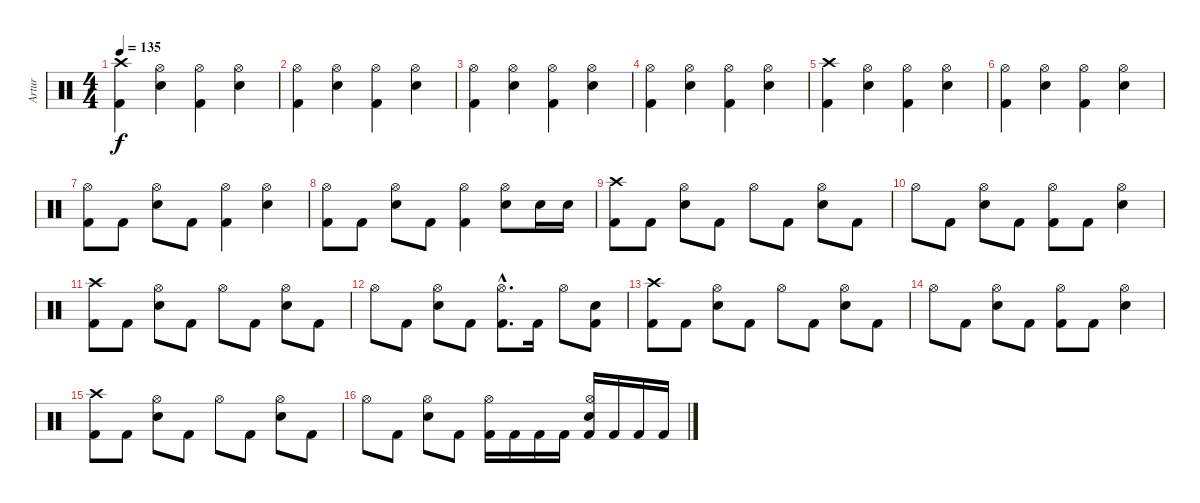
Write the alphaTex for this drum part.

\track ("Artur" "Artur") {instrument percussion}
\staff {score}
\articulation defaults
\ts (4 4)
\tempo 135
\clef neutral
\ks c
("Crash high (hit)" "Kick (hit) 2").4{dy f} ("Hi-Hat (open)" "Electric Snare (hit)").4 ("Hi-Hat (open)" "Kick (hit) 2").4 ("Hi-Hat (open)" "Electric Snare (hit)").4 |
("Hi-Hat (open)" "Kick (hit) 2").4 ("Hi-Hat (open)" "Electric Snare (hit)").4 ("Hi-Hat (open)" "Kick (hit) 2").4 ("Hi-Hat (open)" "Electric Snare (hit)").4 |
("Hi-Hat (open)" "Kick (hit) 2").4 ("Hi-Hat (open)" "Electric Snare (hit)").4 ("Hi-Hat (open)" "Kick (hit) 2").4 ("Hi-Hat (open)" "Electric Snare (hit)").4 |
("Hi-Hat (open)" "Kick (hit) 2").4 ("Hi-Hat (open)" "Electric Snare (hit)").4 ("Hi-Hat (open)" "Kick (hit) 2").4 ("Hi-Hat (open)" "Electric Snare (hit)").4 |
("Crash high (hit)" "Kick (hit) 2").4 ("Hi-Hat (open)" "Electric Snare (hit)").4 ("Hi-Hat (open)" "Kick (hit) 2").4 ("Hi-Hat (open)" "Electric Snare (hit)").4 |
("Hi-Hat (open)" "Kick (hit) 2").4 ("Hi-Hat (open)" "Electric Snare (hit)").4 ("Hi-Hat (open)" "Kick (hit) 2").4 ("Hi-Hat (open)" "Electric Snare (hit)").4 |
("Hi-Hat (open)" "Kick (hit) 2").8 "Kick (hit) 2".8 ("Hi-Hat (open)" "Electric Snare (hit)").8 "Kick (hit) 2".8 ("Hi-Hat (open)" "Kick (hit) 2").4 ("Hi-Hat (open)" "Electric Snare (hit)").4 |
("Hi-Hat (open)" "Kick (hit) 2").8 "Kick (hit) 2".8 ("Hi-Hat (open)" "Electric Snare (hit)").8 "Kick (hit) 2".8 ("Hi-Hat (open)" "Kick (hit) 2").4 ("Hi-Hat (open)" "Electric Snare (hit)").8 "Electric Snare (hit)".16 "Electric Snare (hit)".16 |
("Crash high (hit)" "Kick (hit) 2").8 "Kick (hit) 2".8 ("Hi-Hat (open)" "Electric Snare (hit)").8 "Kick (hit) 2".8 "Hi-Hat (open)".8 "Kick (hit) 2".8 ("Hi-Hat (open)" "Electric Snare (hit)").8 "Kick (hit) 2".8 |
"Hi-Hat (open)".8 "Kick (hit) 2".8 ("Hi-Hat (open)" "Electric Snare (hit)").8 "Kick (hit) 2".8 ("Hi-Hat (open)" "Kick (hit) 2").8 "Kick (hit) 2".8 ("Hi-Hat (open)" "Electric Snare (hit)").4 |
("Crash high (hit)" "Kick (hit) 2").8 "Kick (hit) 2".8 ("Hi-Hat (open)" "Electric Snare (hit)").8 "Kick (hit) 2".8 "Hi-Hat (open)".8 "Kick (hit) 2".8 ("Hi-Hat (open)" "Electric Snare (hit)").8 "Kick (hit) 2".8 |
"Hi-Hat (open)".8 "Kick (hit) 2".8 ("Hi-Hat (open)" "Electric Snare (hit)").8 "Kick (hit) 2".8 ("Hi-Hat (open)"{hac} "Kick (hit) 2"{hac}).8{d} "Kick (hit) 2".16 "Hi-Hat (open)".8 ("Electric Snare (hit)" "Kick (hit) 2").8 |
("Crash high (hit)" "Kick (hit) 2").8 "Kick (hit) 2".8 ("Hi-Hat (open)" "Electric Snare (hit)").8 "Kick (hit) 2".8 "Hi-Hat (open)".8 "Kick (hit) 2".8 ("Hi-Hat (open)" "Electric Snare (hit)").8 "Kick (hit) 2".8 |
"Hi-Hat (open)".8 "Kick (hit) 2".8 ("Hi-Hat (open)" "Electric Snare (hit)").8 "Kick (hit) 2".8 ("Hi-Hat (open)" "Kick (hit) 2").8 "Kick (hit) 2".8 ("Hi-Hat (open)" "Electric Snare (hit)").4 |
("Crash high (hit)" "Kick (hit) 2").8 "Kick (hit) 2".8 ("Hi-Hat (open)" "Electric Snare (hit)").8 "Kick (hit) 2".8 "Hi-Hat (open)".8 "Kick (hit) 2".8 ("Hi-Hat (open)" "Electric Snare (hit)").8 "Kick (hit) 2".8 |
"Hi-Hat (open)".8 "Kick (hit) 2".8 ("Hi-Hat (open)" "Electric Snare (hit)").8 "Kick (hit) 2".8 ("Hi-Hat (open)" "Kick (hit) 2").16 "Kick (hit) 2".16 "Kick (hit) 2".16 "Kick (hit) 2".16 ("Hi-Hat (open)" "Electric Snare (hit)" "Kick (hit) 2").16 "Kick (hit) 2".16 "Kick (hit) 2".16 "Kick (hit) 2".16
